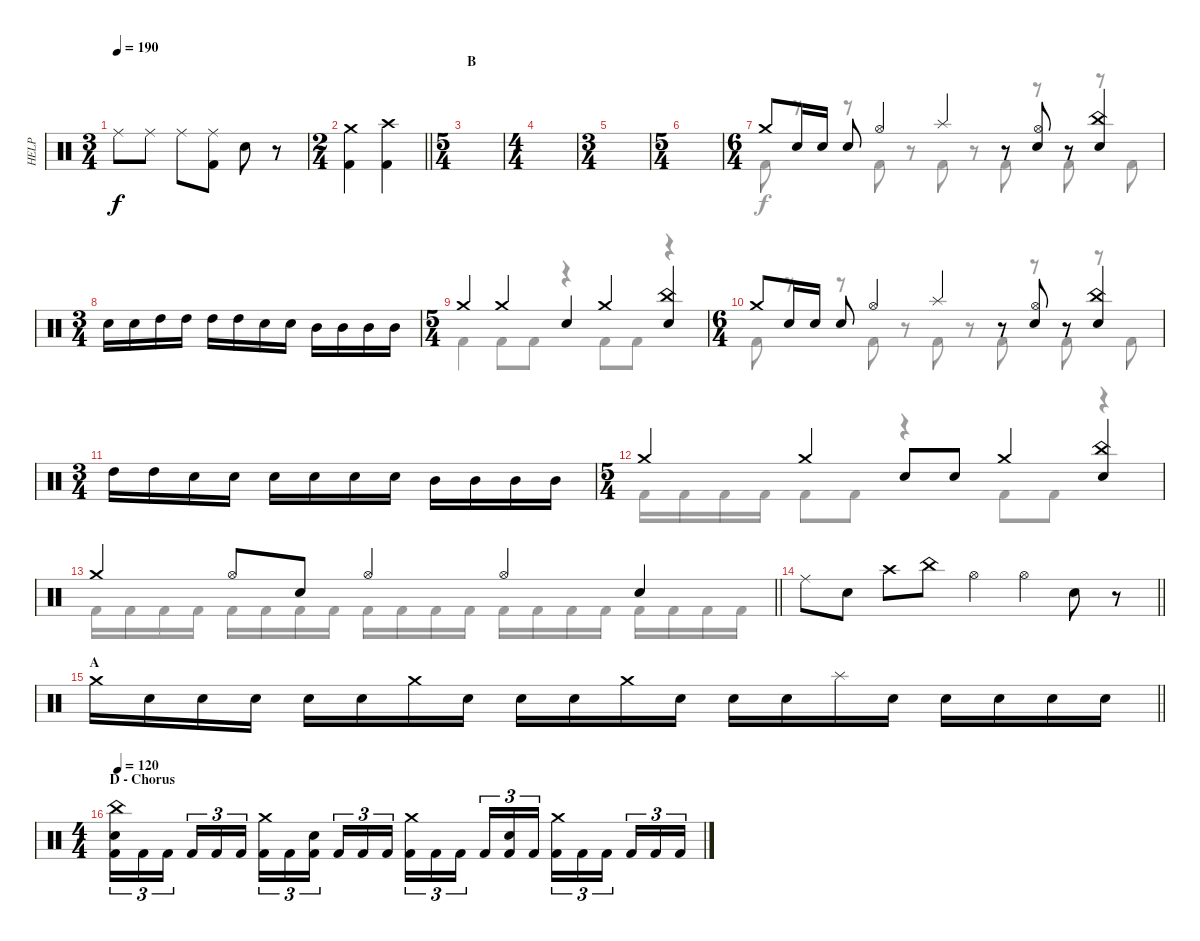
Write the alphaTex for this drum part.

\track ("HELP" "HELP") {instrument percussion}
\staff {score}
\articulation defaults
\voice
\ts (3 4)
\tempo 190
\clef neutral
\ks c "Ride (middle)".8{dy f} "Ride (middle)".8 "Ride (middle)".8
("Ride (middle)" "Kick (hit) 2").8 "Snare (hit) 2".8 r.8 |
\ts (2 4)
\barLineRight lightlight
("Crash medium (hit)" "Kick (hit) 2").4 ("Crash high (hit)" "Kick (hit) 2").4 |
\ts (5 4)
\section ("" "B")
|
\ts (4 4)
|
\ts (3 4)
|
\ts (5 4)
|
\ts (6 4)
"Crash medium (hit)".8 "Electric Snare (hit)".16 "Electric Snare (hit)".16 "Electric Snare (hit)".8 "Hi-Hat (open)".4 "Splash (hit)".4 r.8 ("Hi-Hat (open)" "Electric Snare (hit)").8 r.8 ("China (hit)" "Electric Snare (hit)").4 |
\ts (3 4)
"Electric Snare (hit)".16 "Electric Snare (hit)".16 "High Tom (hit)".16 "High Tom (hit)".16 "High Tom (hit)".16 "High Tom (hit)".16 "Electric Snare (hit)".16 "Electric Snare (hit)".16 "Mid Tom (hit)".16 "Mid Tom (hit)".16 "Mid Tom (hit)".16 "Mid Tom (hit)".16 |
\ts (5 4)
"Crash medium (hit)".4 "Crash medium (hit)".4 "Electric Snare (hit)".4 "Crash medium (hit)".4 ("China (hit)" "Electric Snare (hit)").4 |
\ts (6 4)
"Crash medium (hit)".8 "Electric Snare (hit)".16 "Electric Snare (hit)".16 "Electric Snare (hit)".8 "Hi-Hat (open)".4 "Splash (hit)".4 r.8 ("Hi-Hat (open)" "Electric Snare (hit)").8 r.8 ("China (hit)" "Electric Snare (hit)").4 |
\ts (3 4)
"High Tom (hit)".16 "High Tom (hit)".16 "Electric Snare (hit)".16 "Electric Snare (hit)".16 "Electric Snare (hit)".16 "Electric Snare (hit)".16 "Electric Snare (hit)".16 "Electric Snare (hit)".16 "Mid Tom (hit)".16 "Mid Tom (hit)".16 "Mid Tom (hit)".16 "Mid Tom (hit)".16 |
\ts (5 4)
"Crash medium (hit)".4 "Crash medium (hit)".4 "Electric Snare (hit)".8 "Electric Snare (hit)".8 "Crash medium (hit)".4 ("China (hit)" "Electric Snare (hit)").4 |
\barLineRight lightlight "Crash medium (hit)".4 "Hi-Hat (open)".8 "Electric Snare (hit)".8 "Hi-Hat (open)".4 "Hi-Hat (open)".4 "Electric Snare (hit)".4
|
\barLineRight lightlight "Ride (middle)".8 "Snare (hit) 2".8 "Crash high (hit)".8 "China (hit)".8 "Hi-Hat (open)".4 "Hi-Hat (open)".4 "Snare (hit) 2".8
r.8 |
\section ("" "A")
\barLineRight lightlight "Crash medium (hit)".16 "Electric Snare (hit)".16 "Electric Snare (hit)".16 "Electric Snare (hit)".16 "Electric Snare (hit)".16 "Electric Snare (hit)".16 "Crash medium (hit)".16 "Electric Snare (hit)".16 "Electric Snare (hit)".16 "Electric Snare (hit)".16 "Crash medium (hit)".16 "Electric Snare (hit)".16 "Electric Snare (hit)".16 "Electric Snare (hit)".16 "Splash (hit)".16 "Electric Snare (hit)".16 "Electric Snare (hit)".16 "Electric Snare (hit)".16 "Electric Snare (hit)".16 "Electric Snare (hit)".16
|
\ts (4 4)
\section ("" "D - Chorus")
\tempo 120
("China (hit)" "Electric Snare (hit)" "Kick (hit) 2").16{tu (3 2)} "Kick (hit) 2".16{tu (3 2)} "Kick (hit) 2".16{tu (3 2) beam splitsecondary} "Kick (hit) 2".16{tu (3 2)} "Kick (hit) 2".16{tu (3 2)} "Kick (hit) 2".16{tu (3 2)} ("Crash medium (hit)" "Kick (hit) 2").16{tu (3 2)} "Kick (hit) 2".16{tu (3 2)} ("Electric Snare (hit)" "Kick (hit) 2").16{tu (3 2) beam splitsecondary} "Kick (hit) 2".16{tu (3 2)} "Kick (hit) 2".16{tu (3 2)} "Kick (hit) 2".16{tu (3 2)} ("Crash medium (hit)" "Kick (hit) 2").16{tu (3 2)} "Kick (hit) 2".16{tu (3 2)} "Kick (hit) 2".16{tu (3 2) beam splitsecondary} "Kick (hit) 2".16{tu (3 2)} ("Electric Snare (hit)" "Kick (hit) 2").16{tu (3 2)} "Kick (hit) 2".16{tu (3 2)} ("Crash medium (hit)" "Kick (hit) 2").16{tu (3 2)} "Kick (hit) 2".16{tu (3 2)} "Kick (hit) 2".16{tu (3 2) beam splitsecondary} "Kick (hit) 2".16{tu (3 2)} "Kick (hit) 2".16{tu (3 2)} "Kick (hit) 2".16{tu (3 2)}
\voice
\clef neutral
\ottava regular
\simile none
\ks c
|
\barLineRight lightlight
|
|
|
|
|
"Kick (hit) 2".8 r.8 r.8 "Kick (hit) 2".8 r.8 "Kick (hit) 2".8 r.8 "Kick (hit) 2".8 r.8 "Kick (hit) 2".8 r.8 "Kick (hit) 2".8 |
|
"Kick (hit) 2".4 "Kick (hit) 2".8 "Kick (hit) 2".8 r.4 "Kick (hit) 2".8 "Kick (hit) 2".8 r.4 |
"Kick (hit) 2".8 r.8 r.8 "Kick (hit) 2".8 r.8 "Kick (hit) 2".8 r.8 "Kick (hit) 2".8 r.8 "Kick (hit) 2".8 r.8 "Kick (hit) 2".8 |
|
"Kick (hit) 2".16 "Kick (hit) 2".16 "Kick (hit) 2".16 "Kick (hit) 2".16 "Kick (hit) 2".8 "Kick (hit) 2".8 r.4 "Kick (hit) 2".8 "Kick (hit) 2".8 r.4 |
\barLineRight lightlight "Kick (hit) 2".16 "Kick (hit) 2".16 "Kick (hit) 2".16 "Kick (hit) 2".16 "Kick (hit) 2".16 "Kick (hit) 2".16 "Kick (hit) 2".16 "Kick (hit) 2".16 "Kick (hit) 2".16 "Kick (hit) 2".16 "Kick (hit) 2".16 "Kick (hit) 2".16 "Kick (hit) 2".16 "Kick (hit) 2".16 "Kick (hit) 2".16 "Kick (hit) 2".16 "Kick (hit) 2".16 "Kick (hit) 2".16 "Kick (hit) 2".16 "Kick (hit) 2".16
|
\barLineRight lightlight
|
\barLineRight lightlight
|
